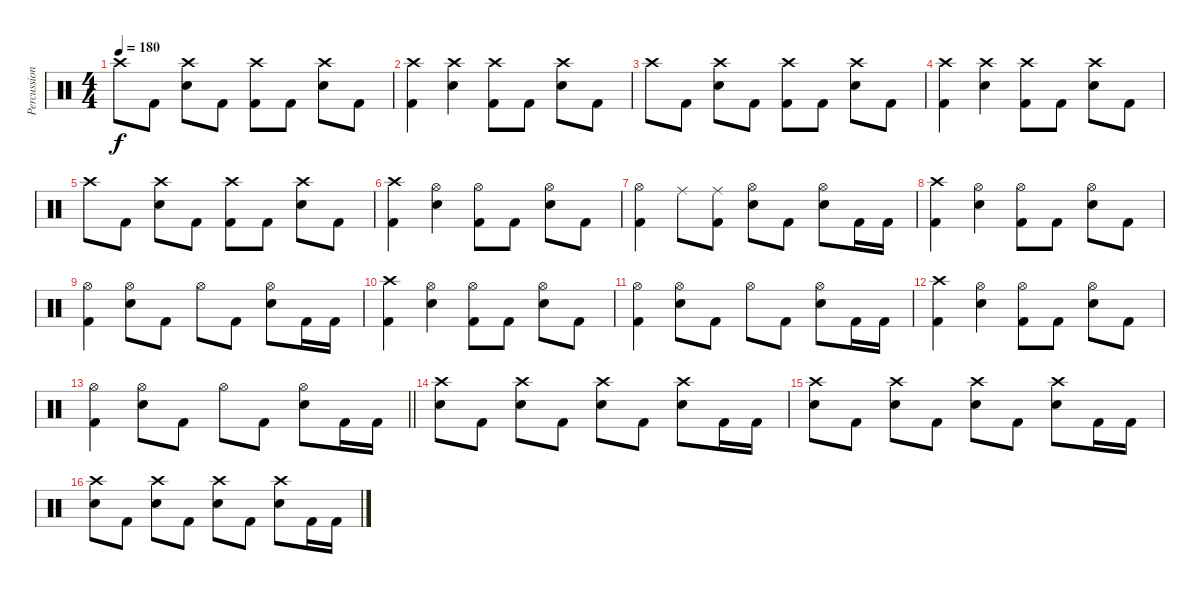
\track ("Percussion" "Percussion") {instrument percussion}
\staff {score}
\articulation defaults
\ts (4 4)
\tempo 180
\clef neutral
\ks c "Crash high (hit)".8{dy f} "Kick (hit) 2".8
("Crash high (hit)" "Snare (hit) 2").8 "Kick (hit) 2".8 ("Crash high (hit)" "Kick (hit) 2").8 "Kick (hit) 2".8 ("Crash high (hit)" "Snare (hit) 2").8 "Kick (hit) 2".8 |
("Crash high (hit)" "Kick (hit) 2").4 ("Crash high (hit)" "Snare (hit) 2").4 ("Crash high (hit)" "Kick (hit) 2").8 "Kick (hit) 2".8 ("Crash high (hit)" "Snare (hit) 2").8 "Kick (hit) 2".8 |
"Crash high (hit)".8 "Kick (hit) 2".8 ("Crash high (hit)" "Snare (hit) 2").8 "Kick (hit) 2".8 ("Crash high (hit)" "Kick (hit) 2").8 "Kick (hit) 2".8 ("Crash high (hit)" "Snare (hit) 2").8 "Kick (hit) 2".8 |
("Crash high (hit)" "Kick (hit) 2").4 ("Crash high (hit)" "Snare (hit) 2").4 ("Crash high (hit)" "Kick (hit) 2").8 "Kick (hit) 2".8 ("Crash high (hit)" "Snare (hit) 2").8 "Kick (hit) 2".8 |
"Crash high (hit)".8 "Kick (hit) 2".8 ("Crash high (hit)" "Snare (hit) 2").8 "Kick (hit) 2".8 ("Crash high (hit)" "Kick (hit) 2").8 "Kick (hit) 2".8 ("Crash high (hit)" "Snare (hit) 2").8 "Kick (hit) 2".8 |
("Crash high (hit)" "Kick (hit) 2").4 ("Hi-Hat (open)" "Snare (hit) 2").4 ("Hi-Hat (open)" "Kick (hit) 2").8 "Kick (hit) 2".8 ("Hi-Hat (open)" "Snare (hit) 2").8 "Kick (hit) 2".8 |
("Hi-Hat (open)" "Kick (hit) 2").4 "Ride (middle)".8 ("Ride (middle)" "Kick (hit) 2").8 ("Hi-Hat (open)" "Snare (hit) 2").8 "Kick (hit) 2".8 ("Hi-Hat (open)" "Snare (hit) 2").8 "Kick (hit) 2".16 "Kick (hit) 2".16 |
("Crash high (hit)" "Kick (hit) 2").4 ("Hi-Hat (open)" "Snare (hit) 2").4 ("Hi-Hat (open)" "Kick (hit) 2").8 "Kick (hit) 2".8 ("Hi-Hat (open)" "Snare (hit) 2").8 "Kick (hit) 2".8 |
("Hi-Hat (open)" "Kick (hit) 2").4 ("Hi-Hat (open)" "Snare (hit) 2").8 "Kick (hit) 2".8 "Hi-Hat (open)".8 "Kick (hit) 2".8 ("Hi-Hat (open)" "Snare (hit) 2").8 "Kick (hit) 2".16 "Kick (hit) 2".16 |
("Crash high (hit)" "Kick (hit) 2").4 ("Hi-Hat (open)" "Snare (hit) 2").4 ("Hi-Hat (open)" "Kick (hit) 2").8 "Kick (hit) 2".8 ("Hi-Hat (open)" "Snare (hit) 2").8 "Kick (hit) 2".8 |
("Hi-Hat (open)" "Kick (hit) 2").4 ("Hi-Hat (open)" "Snare (hit) 2").8 "Kick (hit) 2".8 "Hi-Hat (open)".8 "Kick (hit) 2".8 ("Hi-Hat (open)" "Snare (hit) 2").8 "Kick (hit) 2".16 "Kick (hit) 2".16 |
("Crash high (hit)" "Kick (hit) 2").4 ("Hi-Hat (open)" "Snare (hit) 2").4 ("Hi-Hat (open)" "Kick (hit) 2").8 "Kick (hit) 2".8 ("Hi-Hat (open)" "Snare (hit) 2").8 "Kick (hit) 2".8 |
\barLineRight lightlight
("Hi-Hat (open)" "Kick (hit) 2").4 ("Hi-Hat (open)" "Snare (hit) 2").8 "Kick (hit) 2".8 "Hi-Hat (open)".8 "Kick (hit) 2".8 ("Hi-Hat (open)" "Snare (hit) 2").8 "Kick (hit) 2".16 "Kick (hit) 2".16 |
\section ("" "")
("Crash high (hit)" "Snare (hit) 2").8 "Kick (hit) 2".8 ("Crash high (hit)" "Snare (hit) 2").8 "Kick (hit) 2".8 ("Crash high (hit)" "Snare (hit) 2").8 "Kick (hit) 2".8 ("Crash high (hit)" "Snare (hit) 2").8 "Kick (hit) 2".16 "Kick (hit) 2".16 |
("Crash high (hit)" "Snare (hit) 2").8 "Kick (hit) 2".8 ("Crash high (hit)" "Snare (hit) 2").8 "Kick (hit) 2".8 ("Crash high (hit)" "Snare (hit) 2").8 "Kick (hit) 2".8 ("Crash high (hit)" "Snare (hit) 2").8 "Kick (hit) 2".16 "Kick (hit) 2".16 |
("Crash high (hit)" "Snare (hit) 2").8 "Kick (hit) 2".8 ("Crash high (hit)" "Snare (hit) 2").8 "Kick (hit) 2".8 ("Crash high (hit)" "Snare (hit) 2").8 "Kick (hit) 2".8 ("Crash high (hit)" "Snare (hit) 2").8 "Kick (hit) 2".16 "Kick (hit) 2".16
